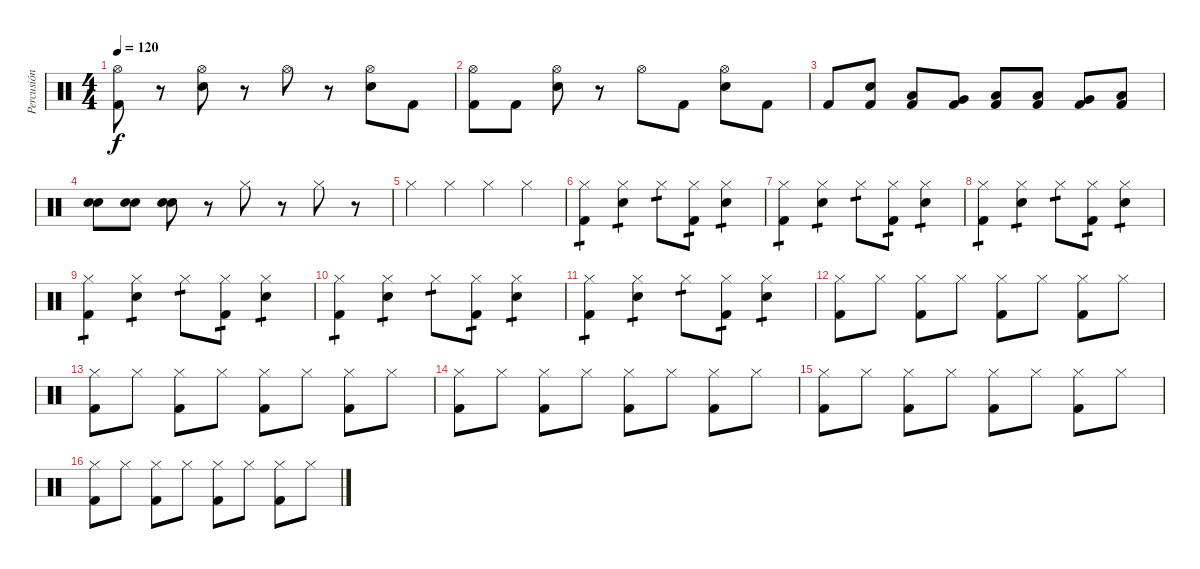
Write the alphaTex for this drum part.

\track ("Percusión" "Percusión") {instrument percussion}
\staff {score}
\articulation defaults
\ts (4 4)
\tempo 120
\clef neutral
\ks c
("Hi-Hat (open)" "Kick (hit) 2").8{dy f} r.8 ("Hi-Hat (open)" "Electric Snare (hit)").8 r.8 "Hi-Hat (open)".8 r.8 ("Hi-Hat (open)" "Electric Snare (hit)").8 "Kick (hit) 2".8 |
("Hi-Hat (open)" "Kick (hit) 2").8 "Kick (hit) 2".8 ("Hi-Hat (open)" "Electric Snare (hit)").8 r.8 "Hi-Hat (open)".8 "Kick (hit) 2".8 ("Hi-Hat (open)" "Electric Snare (hit)").8 "Kick (hit) 2".8 |
"Kick (hit) 2".8 ("Electric Snare (hit)" "Kick (hit) 2").8 ("Low Tom (hit)" "Kick (hit) 2").8 ("Very Low Tom (hit)" "Kick (hit) 2").8 ("Low Floor Tom (hit)" "Kick (hit) 2").8 ("Low Tom (hit)" "Kick (hit) 2").8 ("Very Low Tom (hit)" "Kick (hit) 2").8 ("Low Floor Tom (hit)" "Kick (hit) 2").8 |
("Electric Snare (hit)" "Electric Snare (hit)").8 ("Electric Snare (hit)" "Electric Snare (hit)").8 ("Electric Snare (hit)" "Electric Snare (hit)").8 r.8 "Hi-Hat (closed)".8 r.8 "Hi-Hat (closed)".8 r.8 |
"Hi-Hat (closed)".4 "Hi-Hat (closed)".4 "Hi-Hat (closed)".4 "Hi-Hat (closed)".4 |
("Hi-Hat (closed)" "Kick (hit) 2").4{tp 1} ("Electric Snare (hit)" "Hi-Hat (closed)").4{tp 1} "Hi-Hat (closed)".8{tp 1} ("Hi-Hat (closed)" "Kick (hit) 2").8{tp 1} ("Hi-Hat (closed)" "Electric Snare (hit)").4{tp 1} |
("Hi-Hat (closed)" "Kick (hit) 2").4{tp 1} ("Electric Snare (hit)" "Hi-Hat (closed)").4{tp 1} "Hi-Hat (closed)".8{tp 1} ("Hi-Hat (closed)" "Kick (hit) 2").8{tp 1} ("Hi-Hat (closed)" "Electric Snare (hit)").4{tp 1} |
("Hi-Hat (closed)" "Kick (hit) 2").4{tp 1} ("Electric Snare (hit)" "Hi-Hat (closed)").4{tp 1} "Hi-Hat (closed)".8{tp 1} ("Hi-Hat (closed)" "Kick (hit) 2").8{tp 1} ("Hi-Hat (closed)" "Electric Snare (hit)").4{tp 1} |
("Hi-Hat (closed)" "Kick (hit) 2").4{tp 1} ("Electric Snare (hit)" "Hi-Hat (closed)").4{tp 1} "Hi-Hat (closed)".8{tp 1} ("Hi-Hat (closed)" "Kick (hit) 2").8{tp 1} ("Hi-Hat (closed)" "Electric Snare (hit)").4{tp 1} |
("Hi-Hat (closed)" "Kick (hit) 2").4{tp 1} ("Electric Snare (hit)" "Hi-Hat (closed)").4{tp 1} "Hi-Hat (closed)".8{tp 1} ("Hi-Hat (closed)" "Kick (hit) 2").8{tp 1} ("Hi-Hat (closed)" "Electric Snare (hit)").4{tp 1} |
("Hi-Hat (closed)" "Kick (hit) 2").4{tp 1} ("Electric Snare (hit)" "Hi-Hat (closed)").4{tp 1} "Hi-Hat (closed)".8{tp 1} ("Hi-Hat (closed)" "Kick (hit) 2").8{tp 1} ("Hi-Hat (closed)" "Electric Snare (hit)").4{tp 1} |
("Hi-Hat (closed)" "Kick (hit) 2").8 "Hi-Hat (closed)".8 ("Hi-Hat (closed)" "Kick (hit) 2").8 "Hi-Hat (closed)".8 ("Hi-Hat (closed)" "Kick (hit) 2").8 "Hi-Hat (closed)".8 ("Hi-Hat (closed)" "Kick (hit) 2").8 "Hi-Hat (closed)".8 |
("Hi-Hat (closed)" "Kick (hit) 2").8 "Hi-Hat (closed)".8 ("Hi-Hat (closed)" "Kick (hit) 2").8 "Hi-Hat (closed)".8 ("Hi-Hat (closed)" "Kick (hit) 2").8 "Hi-Hat (closed)".8 ("Hi-Hat (closed)" "Kick (hit) 2").8 "Hi-Hat (closed)".8 |
("Hi-Hat (closed)" "Kick (hit) 2").8 "Hi-Hat (closed)".8 ("Hi-Hat (closed)" "Kick (hit) 2").8 "Hi-Hat (closed)".8 ("Hi-Hat (closed)" "Kick (hit) 2").8 "Hi-Hat (closed)".8 ("Hi-Hat (closed)" "Kick (hit) 2").8 "Hi-Hat (closed)".8 |
("Hi-Hat (closed)" "Kick (hit) 2").8 "Hi-Hat (closed)".8 ("Hi-Hat (closed)" "Kick (hit) 2").8 "Hi-Hat (closed)".8 ("Hi-Hat (closed)" "Kick (hit) 2").8 "Hi-Hat (closed)".8 ("Hi-Hat (closed)" "Kick (hit) 2").8 "Hi-Hat (closed)".8 |
("Hi-Hat (closed)" "Kick (hit) 2").8 "Hi-Hat (closed)".8 ("Hi-Hat (closed)" "Kick (hit) 2").8 "Hi-Hat (closed)".8 ("Hi-Hat (closed)" "Kick (hit) 2").8 "Hi-Hat (closed)".8 ("Hi-Hat (closed)" "Kick (hit) 2").8 "Hi-Hat (closed)".8
